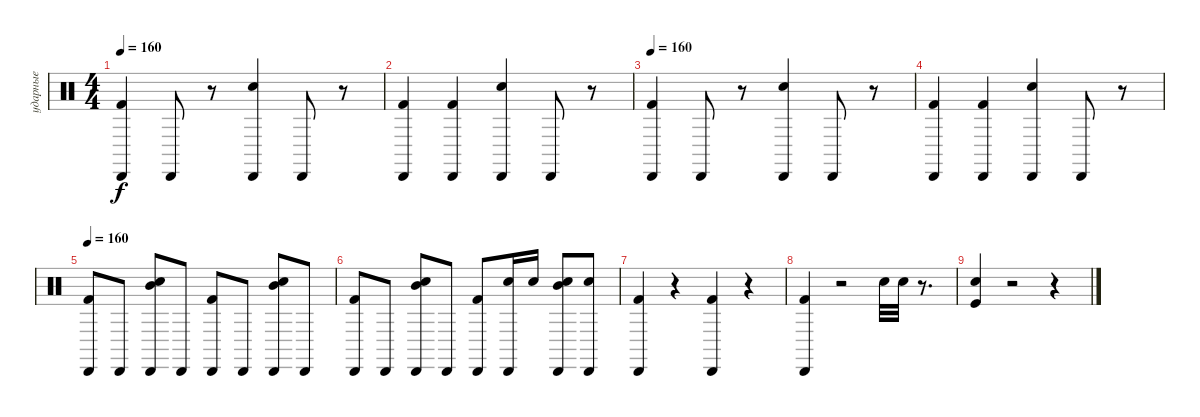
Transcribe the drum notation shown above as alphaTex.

\track ("ударные" "ударные") {instrument percussion}
\staff {score}
\articulation defaults
\ts (4 4)
\tempo 160
\clef neutral
\ks c
("Cabasa (hit)" "Kick (hit) 2").4{dy f} "Cabasa (hit)".8 r.8 ("Cabasa (hit)" "Electric Snare (hit)").4 "Cabasa (hit)".8 r.8 |
("Cabasa (hit)" "Kick (hit) 2").4 ("Cabasa (hit)" "Kick (hit) 2").4 ("Cabasa (hit)" "Electric Snare (hit)").4 "Cabasa (hit)".8 r.8 |
\tempo 160
("Cabasa (hit)" "Kick (hit) 2").4 "Cabasa (hit)".8 r.8 ("Cabasa (hit)" "Electric Snare (hit)").4 "Cabasa (hit)".8 r.8 |
("Cabasa (hit)" "Kick (hit) 2").4 ("Cabasa (hit)" "Kick (hit) 2").4 ("Cabasa (hit)" "Electric Snare (hit)").4 "Cabasa (hit)".8 r.8 |
\tempo 160
("Kick (hit) 2" "Cabasa (hit)").8 "Cabasa (hit)".8 ("Electric Snare (hit)" "Mid Tom (hit)" "Cabasa (hit)").8 "Cabasa (hit)".8 ("Cabasa (hit)" "Kick (hit) 2").8 "Cabasa (hit)".8 ("Cabasa (hit)" "Electric Snare (hit)" "Mid Tom (hit)").8 "Cabasa (hit)".8 |
("Cabasa (hit)" "Kick (hit) 2").8 "Cabasa (hit)".8 ("Electric Snare (hit)" "Cabasa (hit)" "Mid Tom (hit)").8 "Cabasa (hit)".8 ("Cabasa (hit)" "Kick (hit) 2").8 ("Electric Snare (hit)" "Cabasa (hit)").16 "Electric Snare (hit)".16 ("Electric Snare (hit)" "Mid Tom (hit)" "Cabasa (hit)").8 ("Electric Snare (hit)" "Cabasa (hit)").8 |
("Kick (hit) 2" "Cabasa (hit)").4 r.4 ("Kick (hit) 2" "Cabasa (hit)").4 r.4 |
("Kick (hit) 2" "Cabasa (hit)").4 r.2 "Electric Snare (hit)".32 "Electric Snare (hit)".32 r.8{d} |
("Electric Snare (hit)" "Kick (hit)").4 r.2 r.4
